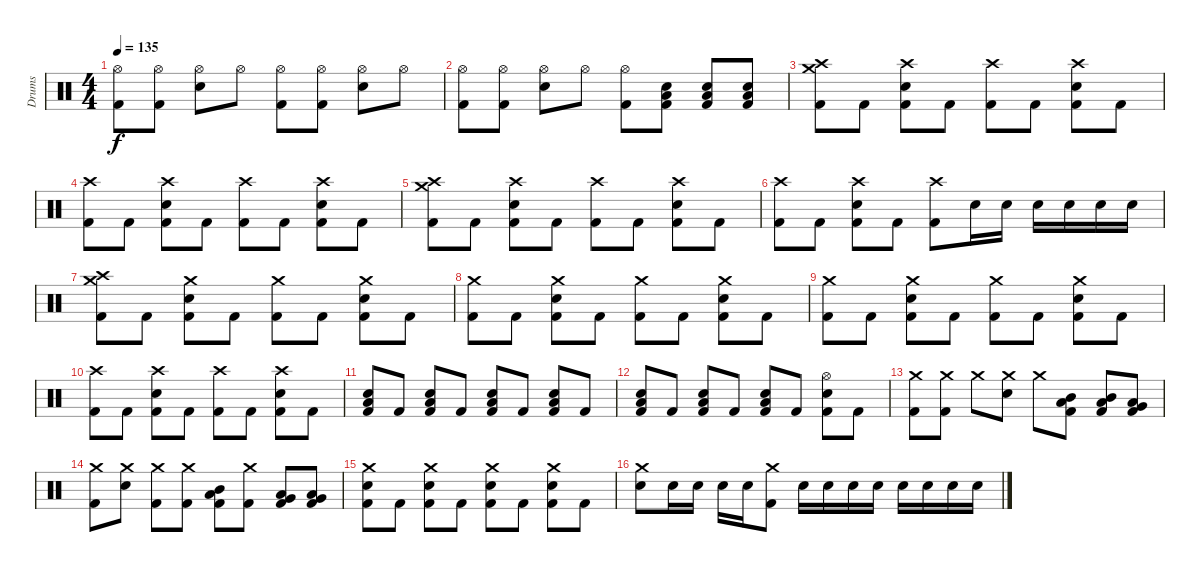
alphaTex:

\track ("Drums" "Drums") {instrument percussion}
\staff {score}
\articulation defaults
\ts (4 4)
\tempo 135
\clef neutral
\ks c
("Hi-Hat (open)" "Kick (hit) 2").8{dy f} ("Hi-Hat (open)" "Kick (hit) 2").8 ("Hi-Hat (open)" "Electric Snare (hit)").8 "Hi-Hat (open)".8 ("Hi-Hat (open)" "Kick (hit) 2").8 ("Hi-Hat (open)" "Kick (hit) 2").8 ("Hi-Hat (open)" "Electric Snare (hit)").8 "Hi-Hat (open)".8 |
("Hi-Hat (open)" "Kick (hit) 2").8 ("Hi-Hat (open)" "Kick (hit) 2").8 ("Hi-Hat (open)" "Electric Snare (hit)").8 "Hi-Hat (open)".8 ("Hi-Hat (open)" "Kick (hit) 2").8 ("Low Floor Tom (hit)" "Electric Snare (hit)" "Kick (hit) 2").8 ("Low Floor Tom (hit)" "Electric Snare (hit)" "Kick (hit) 2").8 ("Low Floor Tom (hit)" "Electric Snare (hit)" "Kick (hit) 2").8 |
("Crash medium (hit)" "Crash high (hit)" "Kick (hit) 2").8 "Kick (hit) 2".8 ("Crash high (hit)" "Electric Snare (hit)" "Kick (hit) 2").8 "Kick (hit) 2".8 ("Crash high (hit)" "Kick (hit) 2").8 "Kick (hit) 2".8 ("Crash high (hit)" "Electric Snare (hit)" "Kick (hit) 2").8 "Kick (hit) 2".8 |
("Crash high (hit)" "Kick (hit) 2").8 "Kick (hit) 2".8 ("Crash high (hit)" "Electric Snare (hit)" "Kick (hit) 2").8 "Kick (hit) 2".8 ("Crash high (hit)" "Kick (hit) 2").8 "Kick (hit) 2".8 ("Crash high (hit)" "Electric Snare (hit)" "Kick (hit) 2").8 "Kick (hit) 2".8 |
("Crash medium (hit)" "Crash high (hit)" "Kick (hit) 2").8 "Kick (hit) 2".8 ("Crash high (hit)" "Electric Snare (hit)" "Kick (hit) 2").8 "Kick (hit) 2".8 ("Crash high (hit)" "Kick (hit) 2").8 "Kick (hit) 2".8 ("Crash high (hit)" "Electric Snare (hit)" "Kick (hit) 2").8 "Kick (hit) 2".8 |
("Crash high (hit)" "Kick (hit) 2").8 "Kick (hit) 2".8 ("Crash high (hit)" "Electric Snare (hit)" "Kick (hit) 2").8 "Kick (hit) 2".8 ("Crash high (hit)" "Kick (hit) 2").8 "Electric Snare (hit)".16 "Electric Snare (hit)".16 "Electric Snare (hit)".16 "Electric Snare (hit)".16 "Electric Snare (hit)".16 "Electric Snare (hit)".16 |
("Crash medium (hit)" "Crash high (hit)" "Kick (hit) 2").8 "Kick (hit) 2".8 ("Crash medium (hit)" "Electric Snare (hit)" "Kick (hit) 2").8 "Kick (hit) 2".8 ("Crash medium (hit)" "Kick (hit) 2").8 "Kick (hit) 2".8 ("Crash medium (hit)" "Electric Snare (hit)" "Kick (hit) 2").8 "Kick (hit) 2".8 |
("Crash medium (hit)" "Kick (hit) 2").8 "Kick (hit) 2".8 ("Crash medium (hit)" "Electric Snare (hit)" "Kick (hit) 2").8 "Kick (hit) 2".8 ("Crash medium (hit)" "Kick (hit) 2").8 "Kick (hit) 2".8 ("Crash medium (hit)" "Electric Snare (hit)" "Kick (hit) 2").8 "Kick (hit) 2".8 |
("Crash medium (hit)" "Kick (hit) 2").8 "Kick (hit) 2".8 ("Crash medium (hit)" "Electric Snare (hit)" "Kick (hit) 2").8 "Kick (hit) 2".8 ("Crash medium (hit)" "Kick (hit) 2").8 "Kick (hit) 2".8 ("Crash medium (hit)" "Electric Snare (hit)" "Kick (hit) 2").8 "Kick (hit) 2".8 |
("Crash high (hit)" "Kick (hit) 2").8 "Kick (hit) 2".8 ("Crash high (hit)" "Electric Snare (hit)" "Kick (hit) 2").8 "Kick (hit) 2".8 ("Crash high (hit)" "Kick (hit) 2").8 "Kick (hit) 2".8 ("Crash high (hit)" "Electric Snare (hit)" "Kick (hit) 2").8 "Kick (hit) 2".8 |
("Low Floor Tom (hit)" "Electric Snare (hit)" "Kick (hit) 2").8 "Kick (hit) 2".8 ("Low Floor Tom (hit)" "Electric Snare (hit)" "Kick (hit) 2").8 "Kick (hit) 2".8 ("Low Floor Tom (hit)" "Electric Snare (hit)" "Kick (hit) 2").8 "Kick (hit) 2".8 ("Low Floor Tom (hit)" "Electric Snare (hit)" "Kick (hit) 2").8 "Kick (hit) 2".8 |
("Low Floor Tom (hit)" "Electric Snare (hit)" "Kick (hit) 2").8 "Kick (hit) 2".8 ("Low Floor Tom (hit)" "Electric Snare (hit)" "Kick (hit) 2").8 "Kick (hit) 2".8 ("Low Floor Tom (hit)" "Electric Snare (hit)" "Kick (hit) 2").8 "Kick (hit) 2".8 ("Hi-Hat (open)" "Electric Snare (hit)" "Kick (hit) 2").8 "Kick (hit) 2".8 |
("Crash medium (hit)" "Kick (hit) 2").8 ("Crash medium (hit)" "Kick (hit) 2").8 "Crash medium (hit)".8 ("Crash medium (hit)" "Electric Snare (hit)").8 "Crash medium (hit)".8 ("Low Tom (hit)" "Mid Tom (hit)" "Kick (hit) 2").8 ("Low Tom (hit)" "Mid Tom (hit)" "Kick (hit) 2").8 ("Very Low Tom (hit)" "Low Tom (hit)" "Kick (hit) 2").8 |
("Crash medium (hit)" "Kick (hit) 2").8 ("Crash medium (hit)" "Electric Snare (hit)").8 ("Crash medium (hit)" "Kick (hit) 2").8 ("Crash medium (hit)" "Kick (hit) 2").8 ("Low Tom (hit)" "Mid Tom (hit)" "Kick (hit) 2").8 ("Crash medium (hit)" "Kick (hit) 2").8 ("Very Low Tom (hit)" "Low Tom (hit)" "Kick (hit) 2").8 ("Low Floor Tom (hit)" "Very Low Tom (hit)" "Kick (hit) 2").8 |
("Crash medium (hit)" "Electric Snare (hit)" "Kick (hit) 2").8 "Kick (hit) 2".8 ("Crash medium (hit)" "Electric Snare (hit)" "Kick (hit) 2").8 "Kick (hit) 2".8 ("Crash medium (hit)" "Electric Snare (hit)" "Kick (hit) 2").8 "Kick (hit) 2".8 ("Crash medium (hit)" "Electric Snare (hit)" "Kick (hit) 2").8 "Kick (hit) 2".8 |
("Crash medium (hit)" "Electric Snare (hit)").8 "Electric Snare (hit)".16 "Electric Snare (hit)".16 "Electric Snare (hit)".16 "Electric Snare (hit)".16 ("Crash medium (hit)" "Kick (hit) 2").8 "Electric Snare (hit)".16 "Electric Snare (hit)".16 "Electric Snare (hit)".16 "Electric Snare (hit)".16 "Electric Snare (hit)".16 "Electric Snare (hit)".16 "Electric Snare (hit)".16 "Electric Snare (hit)".16
